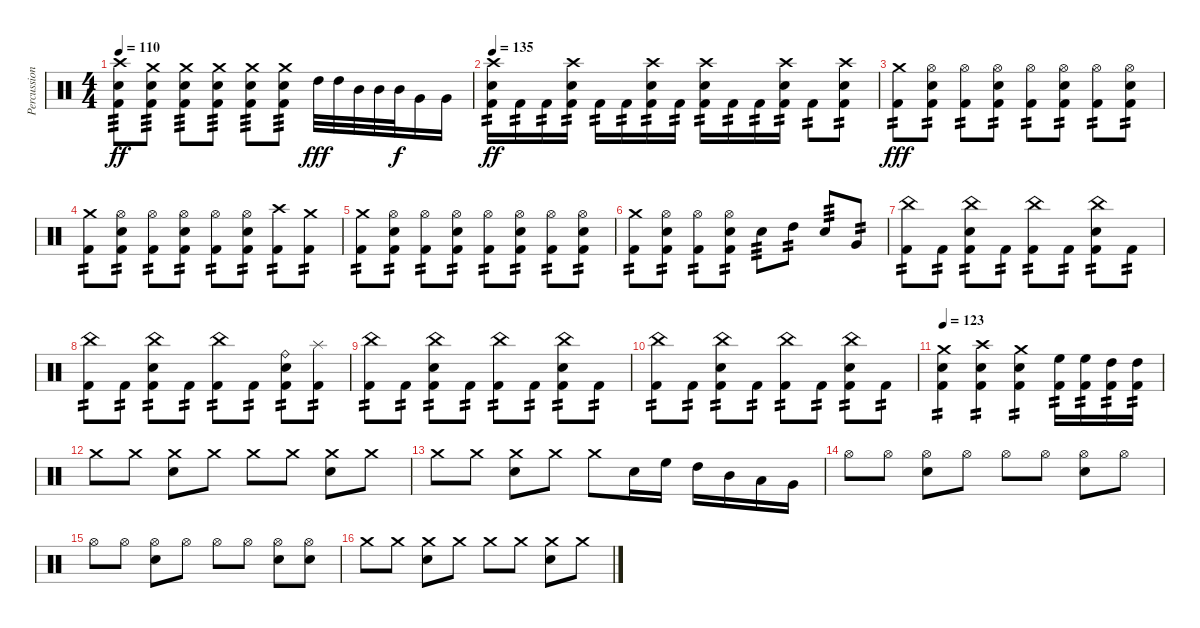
\track ("Percussion" "Percussion") {solo instrument percussion}
\staff {score}
\articulation defaults
\ts (4 4)
\tempo 110
\clef neutral
\ks c
("Crash high (hit)" "Electric Snare (hit)" "Kick (hit) 2").8{tp 3 dy ff} ("Crash medium (hit)" "Electric Snare (hit)" "Kick (hit) 2").8{tp 3} ("Crash medium (hit)" "Electric Snare (hit)" "Kick (hit) 2").8{tp 3} ("Crash medium (hit)" "Electric Snare (hit)" "Kick (hit) 2").8{tp 3} ("Crash medium (hit)" "Electric Snare (hit)" "Kick (hit) 2").8{tp 3} ("Crash medium (hit)" "Electric Snare (hit)" "Kick (hit) 2").8{tp 3} "High Tom (hit)".32{dy fff} "High Tom (hit)".32 "Mid Tom (hit)".32 "Mid Tom (hit)".32 "Mid Tom (hit)".32{dy f} "Very Low Tom (hit)".16 "Very Low Tom (hit)".16 |
\tempo 135
("Kick (hit) 2" "Electric Snare (hit)" "Crash high (hit)").16{tp 2 dy ff} "Kick (hit) 2".16{tp 2} "Kick (hit) 2".16{tp 2} ("Kick (hit) 2" "Electric Snare (hit)" "Crash high (hit)").16{tp 2} "Kick (hit) 2".16{tp 2} "Kick (hit) 2".16{tp 2} ("Kick (hit) 2" "Electric Snare (hit)" "Crash high (hit)").16{tp 2} "Kick (hit) 2".16{tp 2} ("Kick (hit) 2" "Electric Snare (hit)" "Crash high (hit)").16{tp 2} "Kick (hit) 2".16{tp 2} "Kick (hit) 2".16{tp 2} ("Kick (hit) 2" "Electric Snare (hit)" "Crash high (hit)").16{tp 2} "Kick (hit) 2".8{tp 2} ("Kick (hit) 2" "Crash high (hit)" "Electric Snare (hit)").8{tp 2} |
("Crash medium (hit)" "Kick (hit) 2").8{tp 2 dy fff} ("Hi-Hat (open)" "Electric Snare (hit)" "Kick (hit) 2").8{tp 2} ("Hi-Hat (open)" "Kick (hit) 2").8{tp 2} ("Hi-Hat (open)" "Electric Snare (hit)" "Kick (hit) 2").8{tp 2} ("Hi-Hat (open)" "Kick (hit) 2").8{tp 2} ("Hi-Hat (open)" "Electric Snare (hit)" "Kick (hit) 2").8{tp 2} ("Hi-Hat (open)" "Kick (hit) 2").8{tp 2} ("Hi-Hat (open)" "Electric Snare (hit)" "Kick (hit) 2").8{tp 2} |
("Crash medium (hit)" "Kick (hit) 2").8{tp 2} ("Hi-Hat (open)" "Electric Snare (hit)" "Kick (hit) 2").8{tp 2} ("Hi-Hat (open)" "Kick (hit) 2").8{tp 2} ("Hi-Hat (open)" "Electric Snare (hit)" "Kick (hit) 2").8{tp 2} ("Hi-Hat (open)" "Kick (hit) 2").8{tp 2} ("Hi-Hat (open)" "Electric Snare (hit)" "Kick (hit) 2").8{tp 2} ("Crash high (hit)" "Kick (hit) 2").8{tp 2} ("Crash medium (hit)" "Kick (hit) 2").8{tp 2} |
("Crash medium (hit)" "Kick (hit) 2").8{tp 2} ("Hi-Hat (open)" "Electric Snare (hit)" "Kick (hit) 2").8{tp 2} ("Hi-Hat (open)" "Kick (hit) 2").8{tp 2} ("Hi-Hat (open)" "Electric Snare (hit)" "Kick (hit) 2").8{tp 2} ("Hi-Hat (open)" "Kick (hit) 2").8{tp 2} ("Hi-Hat (open)" "Electric Snare (hit)" "Kick (hit) 2").8{tp 2} ("Hi-Hat (open)" "Kick (hit) 2").8{tp 2} ("Hi-Hat (open)" "Electric Snare (hit)" "Kick (hit) 2").8{tp 2} |
("Crash medium (hit)" "Kick (hit) 2").8{tp 2} ("Hi-Hat (open)" "Electric Snare (hit)" "Kick (hit) 2").8{tp 2} ("Hi-Hat (open)" "Kick (hit) 2").8{tp 2} ("Hi-Hat (open)" "Electric Snare (hit)" "Kick (hit) 2").8{tp 2} "Electric Snare (hit)".8{tp 3} "High Tom (hit)".8{tp 2} "Electric Snare (hit)".8{tp 3} "Very Low Tom (hit)".8{tp 2} |
("China (hit)" "Kick (hit) 2").8{tp 2} "Kick (hit) 2".8{tp 2} ("China (hit)" "Electric Snare (hit)" "Kick (hit) 2").8{tp 2} "Kick (hit) 2".8{tp 2} ("China (hit)" "Kick (hit) 2").8{tp 2} "Kick (hit) 2".8{tp 2} ("China (hit)" "Electric Snare (hit)" "Kick (hit) 2").8{tp 2} "Kick (hit) 2".8{tp 2} |
("China (hit)" "Kick (hit) 2").8{tp 2} "Kick (hit) 2".8{tp 2} ("China (hit)" "Electric Snare (hit)" "Kick (hit) 2").8{tp 2} "Kick (hit) 2".8{tp 2} ("China (hit)" "Kick (hit) 2").8{tp 2} "Kick (hit) 2".8{tp 2} ("Ride (bell)" "Electric Snare (hit)" "Kick (hit) 2").8{tp 2} ("Splash (hit)" "Kick (hit) 2").8{tp 2} |
("China (hit)" "Kick (hit) 2").8{tp 2} "Kick (hit) 2".8{tp 2} ("China (hit)" "Electric Snare (hit)" "Kick (hit) 2").8{tp 2} "Kick (hit) 2".8{tp 2} ("China (hit)" "Kick (hit) 2").8{tp 2} "Kick (hit) 2".8{tp 2} ("China (hit)" "Electric Snare (hit)" "Kick (hit) 2").8{tp 2} "Kick (hit) 2".8{tp 2} |
("China (hit)" "Kick (hit) 2").8{tp 2} "Kick (hit) 2".8{tp 2} ("China (hit)" "Electric Snare (hit)" "Kick (hit) 2").8{tp 2} "Kick (hit) 2".8{tp 2} ("China (hit)" "Kick (hit) 2").8{tp 2} "Kick (hit) 2".8{tp 2} ("China (hit)" "Electric Snare (hit)" "Kick (hit) 2").8{tp 2} "Kick (hit) 2".8{tp 2} |
\tempo 123
("Electric Snare (hit)" "Crash medium (hit)" "Kick (hit) 2").4{tp 2} ("Electric Snare (hit)" "Crash high (hit)" "Kick (hit) 2").4{tp 2} ("Electric Snare (hit)" "Crash medium (hit)" "Kick (hit) 2").4{tp 2} ("High Floor Tom (hit)" "Kick (hit) 2").16{tp 2} ("High Floor Tom (hit)" "Kick (hit) 2").16{tp 2} ("High Tom (hit)" "Kick (hit) 2").16{tp 2} ("High Tom (hit)" "Kick (hit) 2").16{tp 2} |
"Crash medium (hit)".8 "Crash medium (hit)".8 ("Crash medium (hit)" "Electric Snare (hit)").8 "Crash medium (hit)".8 "Crash medium (hit)".8 "Crash medium (hit)".8 ("Crash medium (hit)" "Electric Snare (hit)").8 "Crash medium (hit)".8 |
"Crash medium (hit)".8 "Crash medium (hit)".8 ("Crash medium (hit)" "Electric Snare (hit)").8 "Crash medium (hit)".8 "Crash medium (hit)".8 "Electric Snare (hit)".16 "High Floor Tom (hit)".16 "High Tom (hit)".16 "Mid Tom (hit)".16 "Low Tom (hit)".16 "Very Low Tom (hit)".16 |
"Hi-Hat (open)".8 "Hi-Hat (open)".8 ("Hi-Hat (open)" "Electric Snare (hit)").8 "Hi-Hat (open)".8 "Hi-Hat (open)".8 "Hi-Hat (open)".8 ("Hi-Hat (open)" "Electric Snare (hit)").8 "Hi-Hat (open)".8 |
"Hi-Hat (open)".8 "Hi-Hat (open)".8 ("Hi-Hat (open)" "Electric Snare (hit)").8 "Hi-Hat (open)".8 "Hi-Hat (open)".8 "Hi-Hat (open)".8 ("Hi-Hat (open)" "Electric Snare (hit)").8 ("Hi-Hat (open)" "Electric Snare (hit)").8 |
"Crash medium (hit)".8 "Crash medium (hit)".8 ("Crash medium (hit)" "Electric Snare (hit)").8 "Crash medium (hit)".8 "Crash medium (hit)".8 "Crash medium (hit)".8 ("Crash medium (hit)" "Electric Snare (hit)").8 "Crash medium (hit)".8
